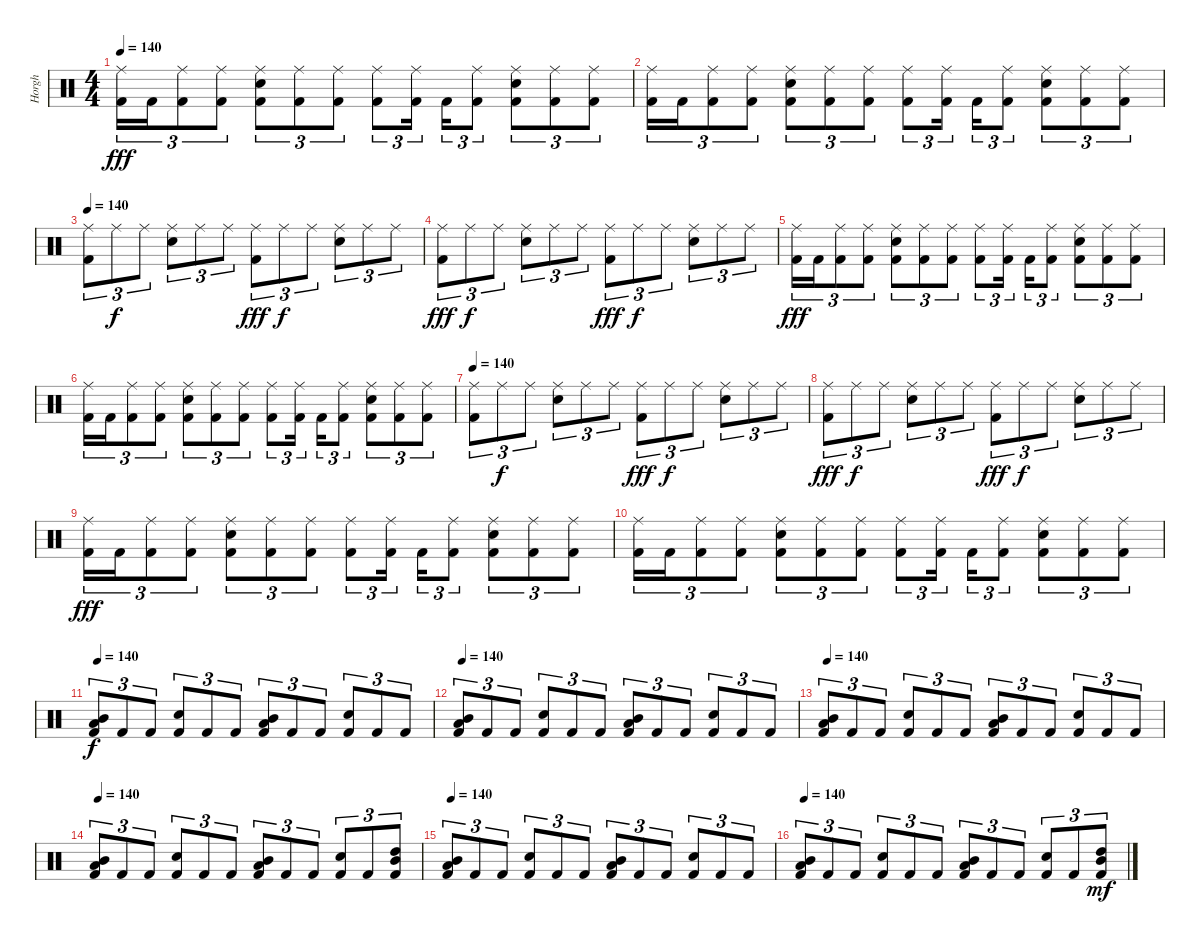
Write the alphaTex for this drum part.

\track ("Horgh" "Horgh") {instrument percussion}
\staff {score}
\articulation defaults
\ts (4 4)
\tempo 140
\clef neutral
\ks c
("Ride (middle)" "Kick (hit) 2").16{tu (3 2) dy fff} "Kick (hit) 2".16{tu (3 2)} ("Ride (middle)" "Kick (hit) 2").8{tu (3 2)} ("Ride (middle)" "Kick (hit) 2").8{tu (3 2)} ("Ride (middle)" "Electric Snare (hit)" "Kick (hit) 2").8{tu (3 2)} ("Ride (middle)" "Kick (hit) 2").8{tu (3 2)} ("Ride (middle)" "Kick (hit) 2").8{tu (3 2)} ("Ride (middle)" "Kick (hit) 2").8{tu (3 2)} ("Ride (middle)" "Kick (hit) 2").16{tu (3 2)} "Kick (hit) 2".16{tu (3 2)} ("Ride (middle)" "Kick (hit) 2").8{tu (3 2)} ("Ride (middle)" "Electric Snare (hit)" "Kick (hit) 2").8{tu (3 2)} ("Ride (middle)" "Kick (hit) 2").8{tu (3 2)} ("Ride (middle)" "Kick (hit) 2").8{tu (3 2)} |
("Ride (middle)" "Kick (hit) 2").16{tu (3 2)} "Kick (hit) 2".16{tu (3 2)} ("Ride (middle)" "Kick (hit) 2").8{tu (3 2)} ("Ride (middle)" "Kick (hit) 2").8{tu (3 2)} ("Ride (middle)" "Electric Snare (hit)" "Kick (hit) 2").8{tu (3 2)} ("Ride (middle)" "Kick (hit) 2").8{tu (3 2)} ("Ride (middle)" "Kick (hit) 2").8{tu (3 2)} ("Ride (middle)" "Kick (hit) 2").8{tu (3 2)} ("Ride (middle)" "Kick (hit) 2").16{tu (3 2)} "Kick (hit) 2".16{tu (3 2)} ("Ride (middle)" "Kick (hit) 2").8{tu (3 2)} ("Ride (middle)" "Electric Snare (hit)" "Kick (hit) 2").8{tu (3 2)} ("Ride (middle)" "Kick (hit) 2").8{tu (3 2)} ("Ride (middle)" "Kick (hit) 2").8{tu (3 2)} |
\tempo 140
("Ride (middle)" "Kick (hit) 2").8{tu (3 2)} "Ride (middle)".8{tu (3 2) dy f} "Ride (middle)".8{tu (3 2)} ("Ride (middle)" "Electric Snare (hit)").8{tu (3 2)} "Ride (middle)".8{tu (3 2)} "Ride (middle)".8{tu (3 2)} ("Ride (middle)" "Kick (hit) 2").8{tu (3 2) dy fff} "Ride (middle)".8{tu (3 2) dy f} "Ride (middle)".8{tu (3 2)} ("Ride (middle)" "Electric Snare (hit)").8{tu (3 2)} "Ride (middle)".8{tu (3 2)} "Ride (middle)".8{tu (3 2)} |
("Ride (middle)" "Kick (hit) 2").8{tu (3 2) dy fff} "Ride (middle)".8{tu (3 2) dy f} "Ride (middle)".8{tu (3 2)} ("Ride (middle)" "Electric Snare (hit)").8{tu (3 2)} "Ride (middle)".8{tu (3 2)} "Ride (middle)".8{tu (3 2)} ("Ride (middle)" "Kick (hit) 2").8{tu (3 2) dy fff} "Ride (middle)".8{tu (3 2) dy f} "Ride (middle)".8{tu (3 2)} ("Ride (middle)" "Electric Snare (hit)").8{tu (3 2)} "Ride (middle)".8{tu (3 2)} "Ride (middle)".8{tu (3 2)} |
("Ride (middle)" "Kick (hit) 2").16{tu (3 2) dy fff} "Kick (hit) 2".16{tu (3 2)} ("Ride (middle)" "Kick (hit) 2").8{tu (3 2)} ("Ride (middle)" "Kick (hit) 2").8{tu (3 2)} ("Ride (middle)" "Electric Snare (hit)" "Kick (hit) 2").8{tu (3 2)} ("Ride (middle)" "Kick (hit) 2").8{tu (3 2)} ("Ride (middle)" "Kick (hit) 2").8{tu (3 2)} ("Ride (middle)" "Kick (hit) 2").8{tu (3 2)} ("Ride (middle)" "Kick (hit) 2").16{tu (3 2)} "Kick (hit) 2".16{tu (3 2)} ("Ride (middle)" "Kick (hit) 2").8{tu (3 2)} ("Ride (middle)" "Electric Snare (hit)" "Kick (hit) 2").8{tu (3 2)} ("Ride (middle)" "Kick (hit) 2").8{tu (3 2)} ("Ride (middle)" "Kick (hit) 2").8{tu (3 2)} |
("Ride (middle)" "Kick (hit) 2").16{tu (3 2)} "Kick (hit) 2".16{tu (3 2)} ("Ride (middle)" "Kick (hit) 2").8{tu (3 2)} ("Ride (middle)" "Kick (hit) 2").8{tu (3 2)} ("Ride (middle)" "Electric Snare (hit)" "Kick (hit) 2").8{tu (3 2)} ("Ride (middle)" "Kick (hit) 2").8{tu (3 2)} ("Ride (middle)" "Kick (hit) 2").8{tu (3 2)} ("Ride (middle)" "Kick (hit) 2").8{tu (3 2)} ("Ride (middle)" "Kick (hit) 2").16{tu (3 2)} "Kick (hit) 2".16{tu (3 2)} ("Ride (middle)" "Kick (hit) 2").8{tu (3 2)} ("Ride (middle)" "Electric Snare (hit)" "Kick (hit) 2").8{tu (3 2)} ("Ride (middle)" "Kick (hit) 2").8{tu (3 2)} ("Ride (middle)" "Kick (hit) 2").8{tu (3 2)} |
\tempo 140
("Ride (middle)" "Kick (hit) 2").8{tu (3 2)} "Ride (middle)".8{tu (3 2) dy f} "Ride (middle)".8{tu (3 2)} ("Ride (middle)" "Electric Snare (hit)").8{tu (3 2)} "Ride (middle)".8{tu (3 2)} "Ride (middle)".8{tu (3 2)} ("Ride (middle)" "Kick (hit) 2").8{tu (3 2) dy fff} "Ride (middle)".8{tu (3 2) dy f} "Ride (middle)".8{tu (3 2)} ("Ride (middle)" "Electric Snare (hit)").8{tu (3 2)} "Ride (middle)".8{tu (3 2)} "Ride (middle)".8{tu (3 2)} |
("Ride (middle)" "Kick (hit) 2").8{tu (3 2) dy fff} "Ride (middle)".8{tu (3 2) dy f} "Ride (middle)".8{tu (3 2)} ("Ride (middle)" "Electric Snare (hit)").8{tu (3 2)} "Ride (middle)".8{tu (3 2)} "Ride (middle)".8{tu (3 2)} ("Ride (middle)" "Kick (hit) 2").8{tu (3 2) dy fff} "Ride (middle)".8{tu (3 2) dy f} "Ride (middle)".8{tu (3 2)} ("Ride (middle)" "Electric Snare (hit)").8{tu (3 2)} "Ride (middle)".8{tu (3 2)} "Ride (middle)".8{tu (3 2)} |
("Ride (middle)" "Kick (hit) 2").16{tu (3 2) dy fff} "Kick (hit) 2".16{tu (3 2)} ("Ride (middle)" "Kick (hit) 2").8{tu (3 2)} ("Ride (middle)" "Kick (hit) 2").8{tu (3 2)} ("Ride (middle)" "Electric Snare (hit)" "Kick (hit) 2").8{tu (3 2)} ("Ride (middle)" "Kick (hit) 2").8{tu (3 2)} ("Ride (middle)" "Kick (hit) 2").8{tu (3 2)} ("Ride (middle)" "Kick (hit) 2").8{tu (3 2)} ("Ride (middle)" "Kick (hit) 2").16{tu (3 2)} "Kick (hit) 2".16{tu (3 2)} ("Ride (middle)" "Kick (hit) 2").8{tu (3 2)} ("Ride (middle)" "Electric Snare (hit)" "Kick (hit) 2").8{tu (3 2)} ("Ride (middle)" "Kick (hit) 2").8{tu (3 2)} ("Ride (middle)" "Kick (hit) 2").8{tu (3 2)} |
("Ride (middle)" "Kick (hit) 2").16{tu (3 2)} "Kick (hit) 2".16{tu (3 2)} ("Ride (middle)" "Kick (hit) 2").8{tu (3 2)} ("Ride (middle)" "Kick (hit) 2").8{tu (3 2)} ("Ride (middle)" "Electric Snare (hit)" "Kick (hit) 2").8{tu (3 2)} ("Ride (middle)" "Kick (hit) 2").8{tu (3 2)} ("Ride (middle)" "Kick (hit) 2").8{tu (3 2)} ("Ride (middle)" "Kick (hit) 2").8{tu (3 2)} ("Ride (middle)" "Kick (hit) 2").16{tu (3 2)} "Kick (hit) 2".16{tu (3 2)} ("Ride (middle)" "Kick (hit) 2").8{tu (3 2)} ("Ride (middle)" "Electric Snare (hit)" "Kick (hit) 2").8{tu (3 2)} ("Ride (middle)" "Kick (hit) 2").8{tu (3 2)} ("Ride (middle)" "Kick (hit) 2").8{tu (3 2)} |
\tempo 140
("Low Tom (hit)" "Mid Tom (hit)" "Kick (hit) 2").8{tu (3 2) dy f} "Kick (hit) 2".8{tu (3 2)} "Kick (hit) 2".8{tu (3 2)} ("Electric Snare (hit)" "Kick (hit) 2").8{tu (3 2)} "Kick (hit) 2".8{tu (3 2)} "Kick (hit) 2".8{tu (3 2)} ("Low Tom (hit)" "Mid Tom (hit)" "Kick (hit) 2").8{tu (3 2)} "Kick (hit) 2".8{tu (3 2)} "Kick (hit) 2".8{tu (3 2)} ("Electric Snare (hit)" "Kick (hit) 2").8{tu (3 2)} "Kick (hit) 2".8{tu (3 2)} "Kick (hit) 2".8{tu (3 2)} |
\tempo 140
("Low Tom (hit)" "Mid Tom (hit)" "Kick (hit) 2").8{tu (3 2)} "Kick (hit) 2".8{tu (3 2)} "Kick (hit) 2".8{tu (3 2)} ("Electric Snare (hit)" "Kick (hit) 2").8{tu (3 2)} "Kick (hit) 2".8{tu (3 2)} "Kick (hit) 2".8{tu (3 2)} ("Low Tom (hit)" "Mid Tom (hit)" "Kick (hit) 2").8{tu (3 2)} "Kick (hit) 2".8{tu (3 2)} "Kick (hit) 2".8{tu (3 2)} ("Electric Snare (hit)" "Kick (hit) 2").8{tu (3 2)} "Kick (hit) 2".8{tu (3 2)} "Kick (hit) 2".8{tu (3 2)} |
\tempo 140
("Low Tom (hit)" "Mid Tom (hit)" "Kick (hit) 2").8{tu (3 2)} "Kick (hit) 2".8{tu (3 2)} "Kick (hit) 2".8{tu (3 2)} ("Electric Snare (hit)" "Kick (hit) 2").8{tu (3 2)} "Kick (hit) 2".8{tu (3 2)} "Kick (hit) 2".8{tu (3 2)} ("Low Tom (hit)" "Mid Tom (hit)" "Kick (hit) 2").8{tu (3 2)} "Kick (hit) 2".8{tu (3 2)} "Kick (hit) 2".8{tu (3 2)} ("Electric Snare (hit)" "Kick (hit) 2").8{tu (3 2)} "Kick (hit) 2".8{tu (3 2)} "Kick (hit) 2".8{tu (3 2)} |
\tempo 140
("Low Tom (hit)" "Mid Tom (hit)" "Kick (hit) 2").8{tu (3 2)} "Kick (hit) 2".8{tu (3 2)} "Kick (hit) 2".8{tu (3 2)} ("Electric Snare (hit)" "Kick (hit) 2").8{tu (3 2)} "Kick (hit) 2".8{tu (3 2)} "Kick (hit) 2".8{tu (3 2)} ("Low Tom (hit)" "Mid Tom (hit)" "Kick (hit) 2").8{tu (3 2)} "Kick (hit) 2".8{tu (3 2)} "Kick (hit) 2".8{tu (3 2)} ("Electric Snare (hit)" "Kick (hit) 2").8{tu (3 2)} "Kick (hit) 2".8{tu (3 2)} ("High Tom (hit)" "Mid Tom (hit)" "Kick (hit) 2").8{tu (3 2)} |
\tempo 140
("Low Tom (hit)" "Mid Tom (hit)" "Kick (hit) 2").8{tu (3 2)} "Kick (hit) 2".8{tu (3 2)} "Kick (hit) 2".8{tu (3 2)} ("Electric Snare (hit)" "Kick (hit) 2").8{tu (3 2)} "Kick (hit) 2".8{tu (3 2)} "Kick (hit) 2".8{tu (3 2)} ("Low Tom (hit)" "Mid Tom (hit)" "Kick (hit) 2").8{tu (3 2)} "Kick (hit) 2".8{tu (3 2)} "Kick (hit) 2".8{tu (3 2)} ("Electric Snare (hit)" "Kick (hit) 2").8{tu (3 2)} "Kick (hit) 2".8{tu (3 2)} "Kick (hit) 2".8{tu (3 2)} |
\tempo 140
("Low Tom (hit)" "Mid Tom (hit)" "Kick (hit) 2").8{tu (3 2)} "Kick (hit) 2".8{tu (3 2)} "Kick (hit) 2".8{tu (3 2)} ("Electric Snare (hit)" "Kick (hit) 2").8{tu (3 2)} "Kick (hit) 2".8{tu (3 2)} "Kick (hit) 2".8{tu (3 2)} ("Low Tom (hit)" "Mid Tom (hit)" "Kick (hit) 2").8{tu (3 2)} "Kick (hit) 2".8{tu (3 2)} "Kick (hit) 2".8{tu (3 2)} ("Electric Snare (hit)" "Kick (hit) 2").8{tu (3 2)} "Kick (hit) 2".8{tu (3 2)} ("High Tom (hit)" "Mid Tom (hit)" "Kick (hit) 2").8{tu (3 2) dy mf}
